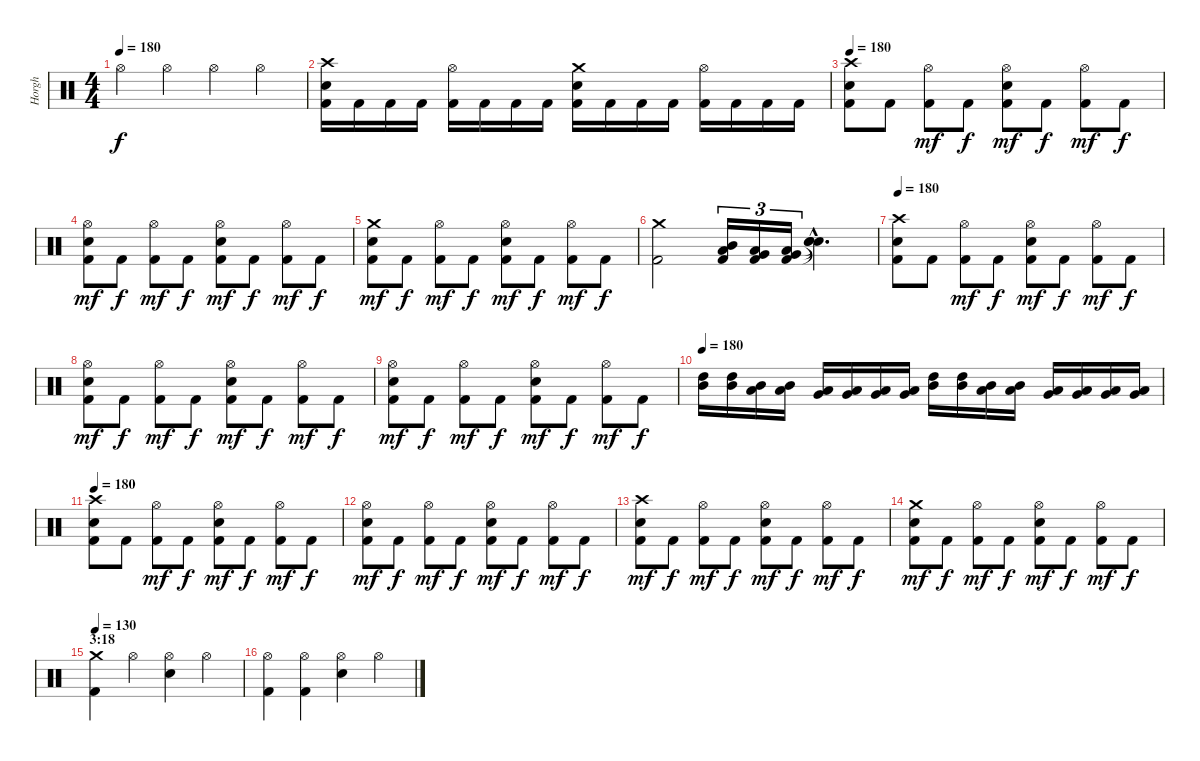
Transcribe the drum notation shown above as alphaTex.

\track ("Horgh" "Horgh") {instrument percussion}
\staff {score}
\articulation defaults
\ts (4 4)
\tempo 180
\clef neutral
\ks c "Hi-Hat (open)".4{dy f} "Hi-Hat (open)".4 "Hi-Hat (open)".4 "Hi-Hat (open)".4
|
("Crash high (hit)" "Electric Snare (hit)" "Kick (hit) 2").16 "Kick (hit) 2".16 "Kick (hit) 2".16 "Kick (hit) 2".16 ("Hi-Hat (open)" "Kick (hit) 2").16 "Kick (hit) 2".16 "Kick (hit) 2".16 "Kick (hit) 2".16 ("Crash medium (hit)" "Electric Snare (hit)" "Kick (hit) 2").16 "Kick (hit) 2".16 "Kick (hit) 2".16 "Kick (hit) 2".16 ("Hi-Hat (open)" "Kick (hit) 2").16 "Kick (hit) 2".16 "Kick (hit) 2".16 "Kick (hit) 2".16 |
\tempo 180
("Crash high (hit)" "Electric Snare (hit)" "Kick (hit) 2").8 "Kick (hit) 2".8 ("Hi-Hat (open)" "Kick (hit) 2").8{dy mf} "Kick (hit) 2".8{dy f} ("Hi-Hat (open)" "Electric Snare (hit)" "Kick (hit) 2").8{dy mf} "Kick (hit) 2".8{dy f} ("Hi-Hat (open)" "Kick (hit) 2").8{dy mf} "Kick (hit) 2".8{dy f} |
("Hi-Hat (open)" "Electric Snare (hit)" "Kick (hit) 2").8{dy mf} "Kick (hit) 2".8{dy f} ("Hi-Hat (open)" "Kick (hit) 2").8{dy mf} "Kick (hit) 2".8{dy f} ("Hi-Hat (open)" "Electric Snare (hit)" "Kick (hit) 2").8{dy mf} "Kick (hit) 2".8{dy f} ("Hi-Hat (open)" "Kick (hit) 2").8{dy mf} "Kick (hit) 2".8{dy f} |
("Crash medium (hit)" "Electric Snare (hit)" "Kick (hit) 2").8{dy mf} "Kick (hit) 2".8{dy f} ("Hi-Hat (open)" "Kick (hit) 2").8{dy mf} "Kick (hit) 2".8{dy f} ("Hi-Hat (open)" "Electric Snare (hit)" "Kick (hit) 2").8{dy mf} "Kick (hit) 2".8{dy f} ("Hi-Hat (open)" "Kick (hit) 2").8{dy mf} "Kick (hit) 2".8{dy f} |
("Crash medium (hit)" "Kick (hit) 2").2 ("Mid Tom (hit)" "Low Tom (hit)" "Kick (hit) 2").16{tu (3 2)} ("Low Tom (hit)" "Very Low Tom (hit)" "Kick (hit) 2").16{tu (3 2)} ("Very Low Tom (hit)" "Low Floor Tom (hit)" "Kick (hit) 2").16{tu (3 2)} ("Snare (hit)"{hac t} "Snare (hit)"{hac t} "Snare (hit)"{hac t}).4{d} |
\tempo 180
("Crash high (hit)" "Electric Snare (hit)" "Kick (hit) 2").8 "Kick (hit) 2".8 ("Hi-Hat (open)" "Kick (hit) 2").8{dy mf} "Kick (hit) 2".8{dy f} ("Hi-Hat (open)" "Electric Snare (hit)" "Kick (hit) 2").8{dy mf} "Kick (hit) 2".8{dy f} ("Hi-Hat (open)" "Kick (hit) 2").8{dy mf} "Kick (hit) 2".8{dy f} |
("Hi-Hat (open)" "Electric Snare (hit)" "Kick (hit) 2").8{dy mf} "Kick (hit) 2".8{dy f} ("Hi-Hat (open)" "Kick (hit) 2").8{dy mf} "Kick (hit) 2".8{dy f} ("Hi-Hat (open)" "Electric Snare (hit)" "Kick (hit) 2").8{dy mf} "Kick (hit) 2".8{dy f} ("Hi-Hat (open)" "Kick (hit) 2").8{dy mf} "Kick (hit) 2".8{dy f} |
("Hi-Hat (open)" "Electric Snare (hit)" "Kick (hit) 2").8{dy mf} "Kick (hit) 2".8{dy f} ("Hi-Hat (open)" "Kick (hit) 2").8{dy mf} "Kick (hit) 2".8{dy f} ("Hi-Hat (open)" "Electric Snare (hit)" "Kick (hit) 2").8{dy mf} "Kick (hit) 2".8{dy f} ("Hi-Hat (open)" "Kick (hit) 2").8{dy mf} "Kick (hit) 2".8{dy f} |
\tempo 180
("High Tom (hit)" "Mid Tom (hit)").16 ("High Tom (hit)" "Mid Tom (hit)").16 ("Mid Tom (hit)" "Low Tom (hit)").16 ("Mid Tom (hit)" "Low Tom (hit)").16 ("Low Tom (hit)" "Very Low Tom (hit)").16 ("Low Tom (hit)" "Very Low Tom (hit)").16 ("Very Low Tom (hit)" "Low Floor Tom (hit)").16 ("Very Low Tom (hit)" "Low Floor Tom (hit)").16 ("High Tom (hit)" "Mid Tom (hit)").16 ("High Tom (hit)" "Mid Tom (hit)").16 ("Mid Tom (hit)" "Low Tom (hit)").16 ("Mid Tom (hit)" "Low Tom (hit)").16 ("Low Tom (hit)" "Very Low Tom (hit)").16 ("Low Tom (hit)" "Very Low Tom (hit)").16 ("Very Low Tom (hit)" "Low Floor Tom (hit)").16 ("Very Low Tom (hit)" "Low Floor Tom (hit)").16 |
\tempo 180
("Crash high (hit)" "Electric Snare (hit)" "Kick (hit) 2").8 "Kick (hit) 2".8 ("Hi-Hat (open)" "Kick (hit) 2").8{dy mf} "Kick (hit) 2".8{dy f} ("Hi-Hat (open)" "Electric Snare (hit)" "Kick (hit) 2").8{dy mf} "Kick (hit) 2".8{dy f} ("Hi-Hat (open)" "Kick (hit) 2").8{dy mf} "Kick (hit) 2".8{dy f} |
("Hi-Hat (open)" "Electric Snare (hit)" "Kick (hit) 2").8{dy mf} "Kick (hit) 2".8{dy f} ("Hi-Hat (open)" "Kick (hit) 2").8{dy mf} "Kick (hit) 2".8{dy f} ("Hi-Hat (open)" "Electric Snare (hit)" "Kick (hit) 2").8{dy mf} "Kick (hit) 2".8{dy f} ("Hi-Hat (open)" "Kick (hit) 2").8{dy mf} "Kick (hit) 2".8{dy f} |
("Crash high (hit)" "Electric Snare (hit)" "Kick (hit) 2").8{dy mf} "Kick (hit) 2".8{dy f} ("Hi-Hat (open)" "Kick (hit) 2").8{dy mf} "Kick (hit) 2".8{dy f} ("Hi-Hat (open)" "Electric Snare (hit)" "Kick (hit) 2").8{dy mf} "Kick (hit) 2".8{dy f} ("Hi-Hat (open)" "Kick (hit) 2").8{dy mf} "Kick (hit) 2".8{dy f} |
("Crash medium (hit)" "Electric Snare (hit)" "Kick (hit) 2").8{dy mf} "Kick (hit) 2".8{dy f} ("Hi-Hat (open)" "Kick (hit) 2").8{dy mf} "Kick (hit) 2".8{dy f} ("Hi-Hat (open)" "Electric Snare (hit)" "Kick (hit) 2").8{dy mf} "Kick (hit) 2".8{dy f} ("Hi-Hat (open)" "Kick (hit) 2").8{dy mf} "Kick (hit) 2".8{dy f} |
\section ("" "3:18")
\tempo 130
("Crash medium (hit)" "Kick (hit) 2").4 "Hi-Hat (open)".4 ("Hi-Hat (open)" "Electric Snare (hit)").4 "Hi-Hat (open)".4 |
("Hi-Hat (open)" "Kick (hit) 2").4 ("Hi-Hat (open)" "Kick (hit) 2").4 ("Hi-Hat (open)" "Electric Snare (hit)").4 "Hi-Hat (open)".4
